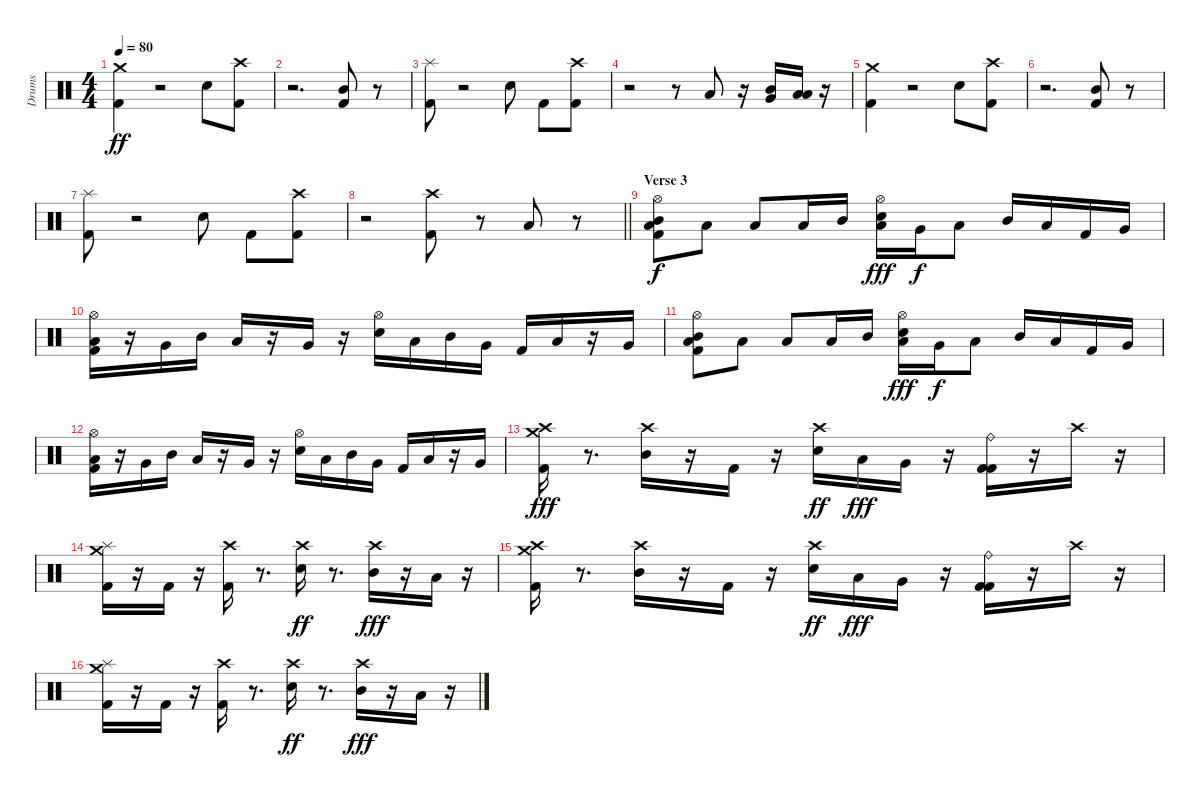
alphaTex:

\track ("Drums" "Drums") {instrument percussion}
\staff {score}
\articulation defaults
\ts (4 4)
\tempo 80
\clef neutral
\ks c
("Crash medium (hit)" "Kick (hit) 2").4{dy ff} r.2 "Snare (hit) 2".8 ("Kick (hit) 2" "Crash high (hit)").8 |
r.2{d} ("Kick (hit) 2" "Mid Tom (hit)").8 r.8 |
("Kick (hit) 2" "Splash (hit)").8 r.2 "Snare (hit) 2".8 "Kick (hit) 2".8 ("Kick (hit) 2" "Crash high (hit)").8 |
r.2 r.8 "Low Tom (hit)".8 r.16 ("Very Low Tom (hit)" "Mid Tom (hit)").16 ("Low Floor Tom (hit)" "Low Tom (hit)").16 r.16 |
("Crash medium (hit)" "Kick (hit) 2").4 r.2 "Snare (hit) 2".8 ("Kick (hit) 2" "Crash high (hit)").8 |
r.2{d} ("Kick (hit) 2" "Mid Tom (hit)").8 r.8 |
("Kick (hit) 2" "Splash (hit)").8 r.2 "Snare (hit) 2".8 "Kick (hit) 2".8 ("Kick (hit) 2" "Crash high (hit)").8 |
\barLineRight lightlight
r.2 ("Kick (hit) 2" "Crash high (hit)").8 r.8 "Low Tom (hit)".8 r.8 |
\section ("" "Verse 3")
("Hi-Hat (open)" "Kick (hit) 2" "Low Tom (hit)" "Mid Tom (hit)").8{dy f} "Low Tom (hit)".8 "Low Tom (hit)".8 "Low Tom (hit)".16 "Mid Tom (hit)".16 ("Hi-Hat (open)" "Snare (hit) 2" "Low Tom (hit)").16{dy fff} "Very Low Tom (hit)".16{dy f} "Low Tom (hit)".8 "Mid Tom (hit)".16 "Low Tom (hit)".16 "Kick (hit) 2".16 "Very Low Tom (hit)".16 |
("Hi-Hat (open)" "Kick (hit) 2" "Low Tom (hit)").16 r.16 "Very Low Tom (hit)".16 "Mid Tom (hit)".16 "Low Tom (hit)".16 r.16 "Very Low Tom (hit)".16 r.16 ("Hi-Hat (open)" "Snare (hit) 2").16 "Low Tom (hit)".16 "Mid Tom (hit)".16 "Very Low Tom (hit)".16 "Kick (hit) 2".16 "Low Tom (hit)".16 r.16 "Very Low Tom (hit)".16 |
("Hi-Hat (open)" "Kick (hit) 2" "Low Tom (hit)" "Mid Tom (hit)").8 "Low Tom (hit)".8 "Low Tom (hit)".8 "Low Tom (hit)".16 "Mid Tom (hit)".16 ("Hi-Hat (open)" "Snare (hit) 2" "Low Tom (hit)").16{dy fff} "Very Low Tom (hit)".16{dy f} "Low Tom (hit)".8 "Mid Tom (hit)".16 "Low Tom (hit)".16 "Kick (hit) 2".16 "Very Low Tom (hit)".16 |
("Hi-Hat (open)" "Kick (hit) 2" "Low Tom (hit)").16 r.16 "Very Low Tom (hit)".16 "Mid Tom (hit)".16 "Low Tom (hit)".16 r.16 "Very Low Tom (hit)".16 r.16 ("Hi-Hat (open)" "Snare (hit) 2").16 "Low Tom (hit)".16 "Mid Tom (hit)".16 "Very Low Tom (hit)".16 "Kick (hit) 2".16 "Low Tom (hit)".16 r.16 "Very Low Tom (hit)".16 |
("Crash medium (hit)" "Kick (hit) 2" "Crash high (hit)").16{dy fff} r.8{d} ("Mid Tom (hit)" "Crash high (hit)").16 r.16 "Kick (hit) 2".16 r.16 ("Snare (hit) 2" "Crash high (hit)").16{dy ff} "Low Tom (hit)".16{dy fff} "Very Low Tom (hit)".16 r.16 ("Kick (hit) 2" "Kick (hit) 2" "Ride (bell)").16 r.16 "Crash high (hit)".16 r.16 |
("Crash medium (hit)" "Kick (hit) 2" "Splash (hit)").16 r.16 "Kick (hit) 2".16 r.16 ("Kick (hit) 2" "Crash high (hit)").16 r.8{d} ("Snare (hit) 2" "Crash high (hit)").16{dy ff} r.8{d} ("Mid Tom (hit)" "Crash high (hit)").16{dy fff} r.16 "Low Tom (hit)".16 r.16 |
("Crash medium (hit)" "Kick (hit) 2" "Crash high (hit)").16 r.8{d} ("Mid Tom (hit)" "Crash high (hit)").16 r.16 "Kick (hit) 2".16 r.16 ("Snare (hit) 2" "Crash high (hit)").16{dy ff} "Low Tom (hit)".16{dy fff} "Very Low Tom (hit)".16 r.16 ("Kick (hit) 2" "Kick (hit) 2" "Ride (bell)").16 r.16 "Crash high (hit)".16 r.16 |
("Crash medium (hit)" "Kick (hit) 2" "Splash (hit)").16 r.16 "Kick (hit) 2".16 r.16 ("Kick (hit) 2" "Crash high (hit)").16 r.8{d} ("Snare (hit) 2" "Crash high (hit)").16{dy ff} r.8{d} ("Mid Tom (hit)" "Crash high (hit)").16{dy fff} r.16 "Low Tom (hit)".16 r.16
